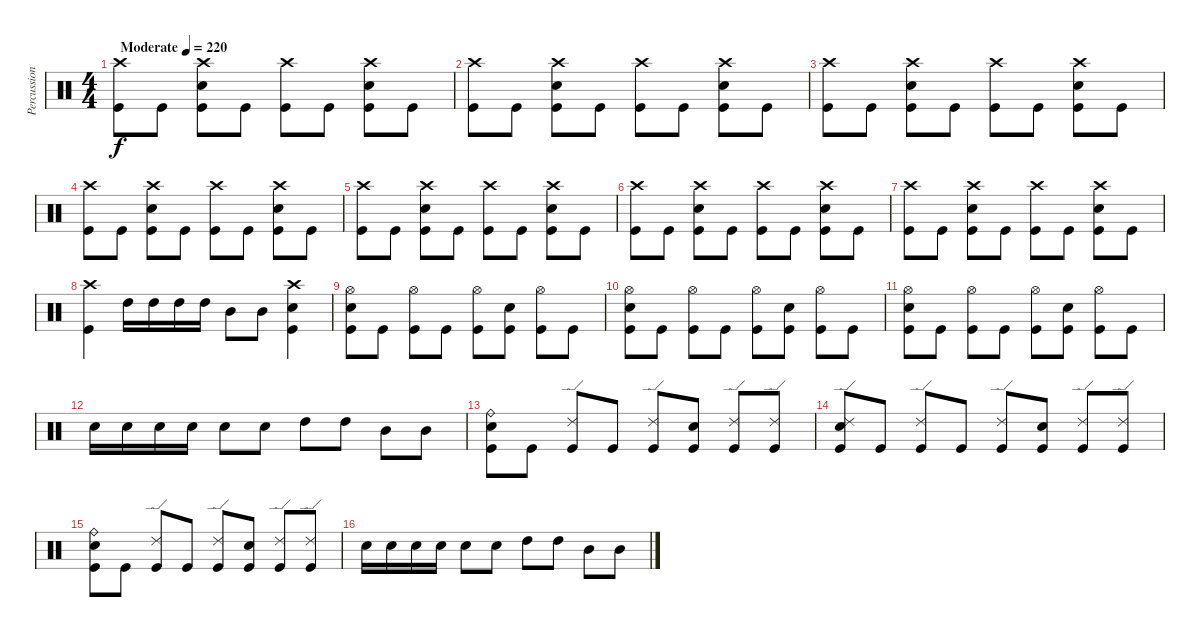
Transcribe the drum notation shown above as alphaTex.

\track ("Percussion" "Percussion") {instrument percussion}
\staff {score}
\articulation defaults
\ts (4 4)
\tempo (220 "Moderate")
\clef neutral
\ks c
("Crash high (hit)" "Kick (hit)").8{dy f} "Kick (hit)".8 ("Crash high (hit)" "Electric Snare (hit)" "Kick (hit)").8 "Kick (hit)".8 ("Crash high (hit)" "Kick (hit)").8 "Kick (hit)".8 ("Crash high (hit)" "Electric Snare (hit)" "Kick (hit)").8 "Kick (hit)".8 |
("Crash high (hit)" "Kick (hit)").8 "Kick (hit)".8 ("Crash high (hit)" "Electric Snare (hit)" "Kick (hit)").8 "Kick (hit)".8 ("Crash high (hit)" "Kick (hit)").8 "Kick (hit)".8 ("Crash high (hit)" "Electric Snare (hit)" "Kick (hit)").8 "Kick (hit)".8 |
("Crash high (hit)" "Kick (hit)").8 "Kick (hit)".8 ("Crash high (hit)" "Electric Snare (hit)" "Kick (hit)").8 "Kick (hit)".8 ("Crash high (hit)" "Kick (hit)").8 "Kick (hit)".8 ("Crash high (hit)" "Electric Snare (hit)" "Kick (hit)").8 "Kick (hit)".8 |
("Crash high (hit)" "Kick (hit)").8 "Kick (hit)".8 ("Crash high (hit)" "Electric Snare (hit)" "Kick (hit)").8 "Kick (hit)".8 ("Crash high (hit)" "Kick (hit)").8 "Kick (hit)".8 ("Crash high (hit)" "Electric Snare (hit)" "Kick (hit)").8 "Kick (hit)".8 |
("Crash high (hit)" "Kick (hit)").8 "Kick (hit)".8 ("Crash high (hit)" "Electric Snare (hit)" "Kick (hit)").8 "Kick (hit)".8 ("Crash high (hit)" "Kick (hit)").8 "Kick (hit)".8 ("Crash high (hit)" "Electric Snare (hit)" "Kick (hit)").8 "Kick (hit)".8 |
("Crash high (hit)" "Kick (hit)").8 "Kick (hit)".8 ("Crash high (hit)" "Electric Snare (hit)" "Kick (hit)").8 "Kick (hit)".8 ("Crash high (hit)" "Kick (hit)").8 "Kick (hit)".8 ("Crash high (hit)" "Electric Snare (hit)" "Kick (hit)").8 "Kick (hit)".8 |
("Crash high (hit)" "Kick (hit)").8 "Kick (hit)".8 ("Crash high (hit)" "Electric Snare (hit)" "Kick (hit)").8 "Kick (hit)".8 ("Crash high (hit)" "Kick (hit)").8 "Kick (hit)".8 ("Crash high (hit)" "Electric Snare (hit)" "Kick (hit)").8 "Kick (hit)".8 |
("Crash high (hit)" "Kick (hit)").4 "High Tom (hit)".16 "High Tom (hit)".16 "High Tom (hit)".16 "High Tom (hit)".16 "Mid Tom (hit)".8 "Mid Tom (hit)".8 ("Crash high (hit)" "Electric Snare (hit)" "Kick (hit)").4 |
("Hi-Hat (open)" "Electric Snare (hit)" "Kick (hit)").8 "Kick (hit)".8 ("Hi-Hat (open)" "Kick (hit)").8 "Kick (hit)".8 ("Hi-Hat (open)" "Kick (hit)").8 ("Electric Snare (hit)" "Kick (hit)").8 ("Hi-Hat (open)" "Kick (hit)").8 "Kick (hit)".8 |
("Hi-Hat (open)" "Electric Snare (hit)" "Kick (hit)").8 "Kick (hit)".8 ("Hi-Hat (open)" "Kick (hit)").8 "Kick (hit)".8 ("Hi-Hat (open)" "Kick (hit)").8 ("Electric Snare (hit)" "Kick (hit)").8 ("Hi-Hat (open)" "Kick (hit)").8 "Kick (hit)".8 |
("Hi-Hat (open)" "Electric Snare (hit)" "Kick (hit)").8 "Kick (hit)".8 ("Hi-Hat (open)" "Kick (hit)").8 "Kick (hit)".8 ("Hi-Hat (open)" "Kick (hit)").8 ("Electric Snare (hit)" "Kick (hit)").8 ("Hi-Hat (open)" "Kick (hit)").8 "Kick (hit)".8 |
"Electric Snare (hit)".16 "Electric Snare (hit)".16 "Electric Snare (hit)".16 "Electric Snare (hit)".16 "Electric Snare (hit)".8 "Electric Snare (hit)".8 "High Tom (hit)".8 "High Tom (hit)".8 "Mid Tom (hit)".8 "Mid Tom (hit)".8 |
("Ride (bell)" "Electric Snare (hit)" "Kick (hit)").8 "Kick (hit)".8 ("Ride (edge) 2" "Kick (hit)").8 "Kick (hit)".8 ("Ride (edge) 2" "Kick (hit)").8 ("Electric Snare (hit)" "Kick (hit)").8 ("Ride (edge) 2" "Kick (hit)").8 ("Ride (edge) 2" "Kick (hit)").8 |
("Ride (edge) 2" "Electric Snare (hit)" "Kick (hit)").8 "Kick (hit)".8 ("Ride (edge) 2" "Kick (hit)").8 "Kick (hit)".8 ("Ride (edge) 2" "Kick (hit)").8 ("Electric Snare (hit)" "Kick (hit)").8 ("Ride (edge) 2" "Kick (hit)").8 ("Ride (edge) 2" "Kick (hit)").8 |
("Ride (bell)" "Electric Snare (hit)" "Kick (hit)").8 "Kick (hit)".8 ("Ride (edge) 2" "Kick (hit)").8 "Kick (hit)".8 ("Ride (edge) 2" "Kick (hit)").8 ("Electric Snare (hit)" "Kick (hit)").8 ("Ride (edge) 2" "Kick (hit)").8 ("Ride (edge) 2" "Kick (hit)").8 |
"Electric Snare (hit)".16 "Electric Snare (hit)".16 "Electric Snare (hit)".16 "Electric Snare (hit)".16 "Electric Snare (hit)".8 "Electric Snare (hit)".8 "High Tom (hit)".8 "High Tom (hit)".8 "Mid Tom (hit)".8 "Mid Tom (hit)".8
